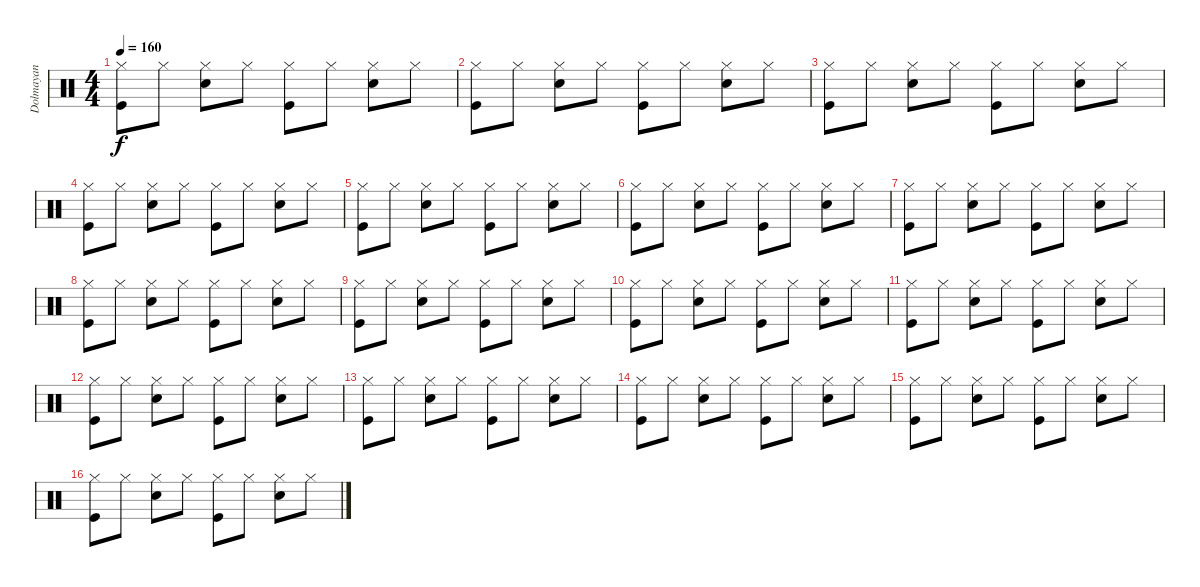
\track ("Dolmayan" "Dolmayan") {instrument percussion}
\staff {score}
\articulation defaults
\ts (4 4)
\tempo 160
\clef neutral
\ks c
("Hi-Hat (closed)" "Kick (hit)").8{dy f} "Hi-Hat (closed)".8 ("Hi-Hat (closed)" "Electric Snare (hit)").8 "Hi-Hat (closed)".8 ("Hi-Hat (closed)" "Kick (hit)").8 "Hi-Hat (closed)".8 ("Hi-Hat (closed)" "Electric Snare (hit)").8 "Hi-Hat (closed)".8 |
("Hi-Hat (closed)" "Kick (hit)").8 "Hi-Hat (closed)".8 ("Hi-Hat (closed)" "Electric Snare (hit)").8 "Hi-Hat (closed)".8 ("Hi-Hat (closed)" "Kick (hit)").8 "Hi-Hat (closed)".8 ("Hi-Hat (closed)" "Electric Snare (hit)").8 "Hi-Hat (closed)".8 |
("Hi-Hat (closed)" "Kick (hit)").8 "Hi-Hat (closed)".8 ("Hi-Hat (closed)" "Electric Snare (hit)").8 "Hi-Hat (closed)".8 ("Hi-Hat (closed)" "Kick (hit)").8 "Hi-Hat (closed)".8 ("Hi-Hat (closed)" "Electric Snare (hit)").8 "Hi-Hat (closed)".8 |
("Hi-Hat (closed)" "Kick (hit)").8 "Hi-Hat (closed)".8 ("Hi-Hat (closed)" "Electric Snare (hit)").8 "Hi-Hat (closed)".8 ("Hi-Hat (closed)" "Kick (hit)").8 "Hi-Hat (closed)".8 ("Hi-Hat (closed)" "Electric Snare (hit)").8 "Hi-Hat (closed)".8 |
("Hi-Hat (closed)" "Kick (hit)").8 "Hi-Hat (closed)".8 ("Hi-Hat (closed)" "Electric Snare (hit)").8 "Hi-Hat (closed)".8 ("Hi-Hat (closed)" "Kick (hit)").8 "Hi-Hat (closed)".8 ("Hi-Hat (closed)" "Electric Snare (hit)").8 "Hi-Hat (closed)".8 |
("Hi-Hat (closed)" "Kick (hit)").8 "Hi-Hat (closed)".8 ("Hi-Hat (closed)" "Electric Snare (hit)").8 "Hi-Hat (closed)".8 ("Hi-Hat (closed)" "Kick (hit)").8 "Hi-Hat (closed)".8 ("Hi-Hat (closed)" "Electric Snare (hit)").8 "Hi-Hat (closed)".8 |
("Hi-Hat (closed)" "Kick (hit)").8 "Hi-Hat (closed)".8 ("Hi-Hat (closed)" "Electric Snare (hit)").8 "Hi-Hat (closed)".8 ("Hi-Hat (closed)" "Kick (hit)").8 "Hi-Hat (closed)".8 ("Hi-Hat (closed)" "Electric Snare (hit)").8 "Hi-Hat (closed)".8 |
("Hi-Hat (closed)" "Kick (hit)").8 "Hi-Hat (closed)".8 ("Hi-Hat (closed)" "Electric Snare (hit)").8 "Hi-Hat (closed)".8 ("Hi-Hat (closed)" "Kick (hit)").8 "Hi-Hat (closed)".8 ("Hi-Hat (closed)" "Electric Snare (hit)").8 "Hi-Hat (closed)".8 |
("Hi-Hat (closed)" "Kick (hit)").8 "Hi-Hat (closed)".8 ("Hi-Hat (closed)" "Electric Snare (hit)").8 "Hi-Hat (closed)".8 ("Hi-Hat (closed)" "Kick (hit)").8 "Hi-Hat (closed)".8 ("Hi-Hat (closed)" "Electric Snare (hit)").8 "Hi-Hat (closed)".8 |
("Hi-Hat (closed)" "Kick (hit)").8 "Hi-Hat (closed)".8 ("Hi-Hat (closed)" "Electric Snare (hit)").8 "Hi-Hat (closed)".8 ("Hi-Hat (closed)" "Kick (hit)").8 "Hi-Hat (closed)".8 ("Hi-Hat (closed)" "Electric Snare (hit)").8 "Hi-Hat (closed)".8 |
("Hi-Hat (closed)" "Kick (hit)").8 "Hi-Hat (closed)".8 ("Hi-Hat (closed)" "Electric Snare (hit)").8 "Hi-Hat (closed)".8 ("Hi-Hat (closed)" "Kick (hit)").8 "Hi-Hat (closed)".8 ("Hi-Hat (closed)" "Electric Snare (hit)").8 "Hi-Hat (closed)".8 |
("Hi-Hat (closed)" "Kick (hit)").8 "Hi-Hat (closed)".8 ("Hi-Hat (closed)" "Electric Snare (hit)").8 "Hi-Hat (closed)".8 ("Hi-Hat (closed)" "Kick (hit)").8 "Hi-Hat (closed)".8 ("Hi-Hat (closed)" "Electric Snare (hit)").8 "Hi-Hat (closed)".8 |
("Hi-Hat (closed)" "Kick (hit)").8 "Hi-Hat (closed)".8 ("Hi-Hat (closed)" "Electric Snare (hit)").8 "Hi-Hat (closed)".8 ("Hi-Hat (closed)" "Kick (hit)").8 "Hi-Hat (closed)".8 ("Hi-Hat (closed)" "Electric Snare (hit)").8 "Hi-Hat (closed)".8 |
("Hi-Hat (closed)" "Kick (hit)").8 "Hi-Hat (closed)".8 ("Hi-Hat (closed)" "Electric Snare (hit)").8 "Hi-Hat (closed)".8 ("Hi-Hat (closed)" "Kick (hit)").8 "Hi-Hat (closed)".8 ("Hi-Hat (closed)" "Electric Snare (hit)").8 "Hi-Hat (closed)".8 |
("Hi-Hat (closed)" "Kick (hit)").8 "Hi-Hat (closed)".8 ("Hi-Hat (closed)" "Electric Snare (hit)").8 "Hi-Hat (closed)".8 ("Hi-Hat (closed)" "Kick (hit)").8 "Hi-Hat (closed)".8 ("Hi-Hat (closed)" "Electric Snare (hit)").8 "Hi-Hat (closed)".8 |
("Hi-Hat (closed)" "Kick (hit)").8 "Hi-Hat (closed)".8 ("Hi-Hat (closed)" "Electric Snare (hit)").8 "Hi-Hat (closed)".8 ("Hi-Hat (closed)" "Kick (hit)").8 "Hi-Hat (closed)".8 ("Hi-Hat (closed)" "Electric Snare (hit)").8 "Hi-Hat (closed)".8
